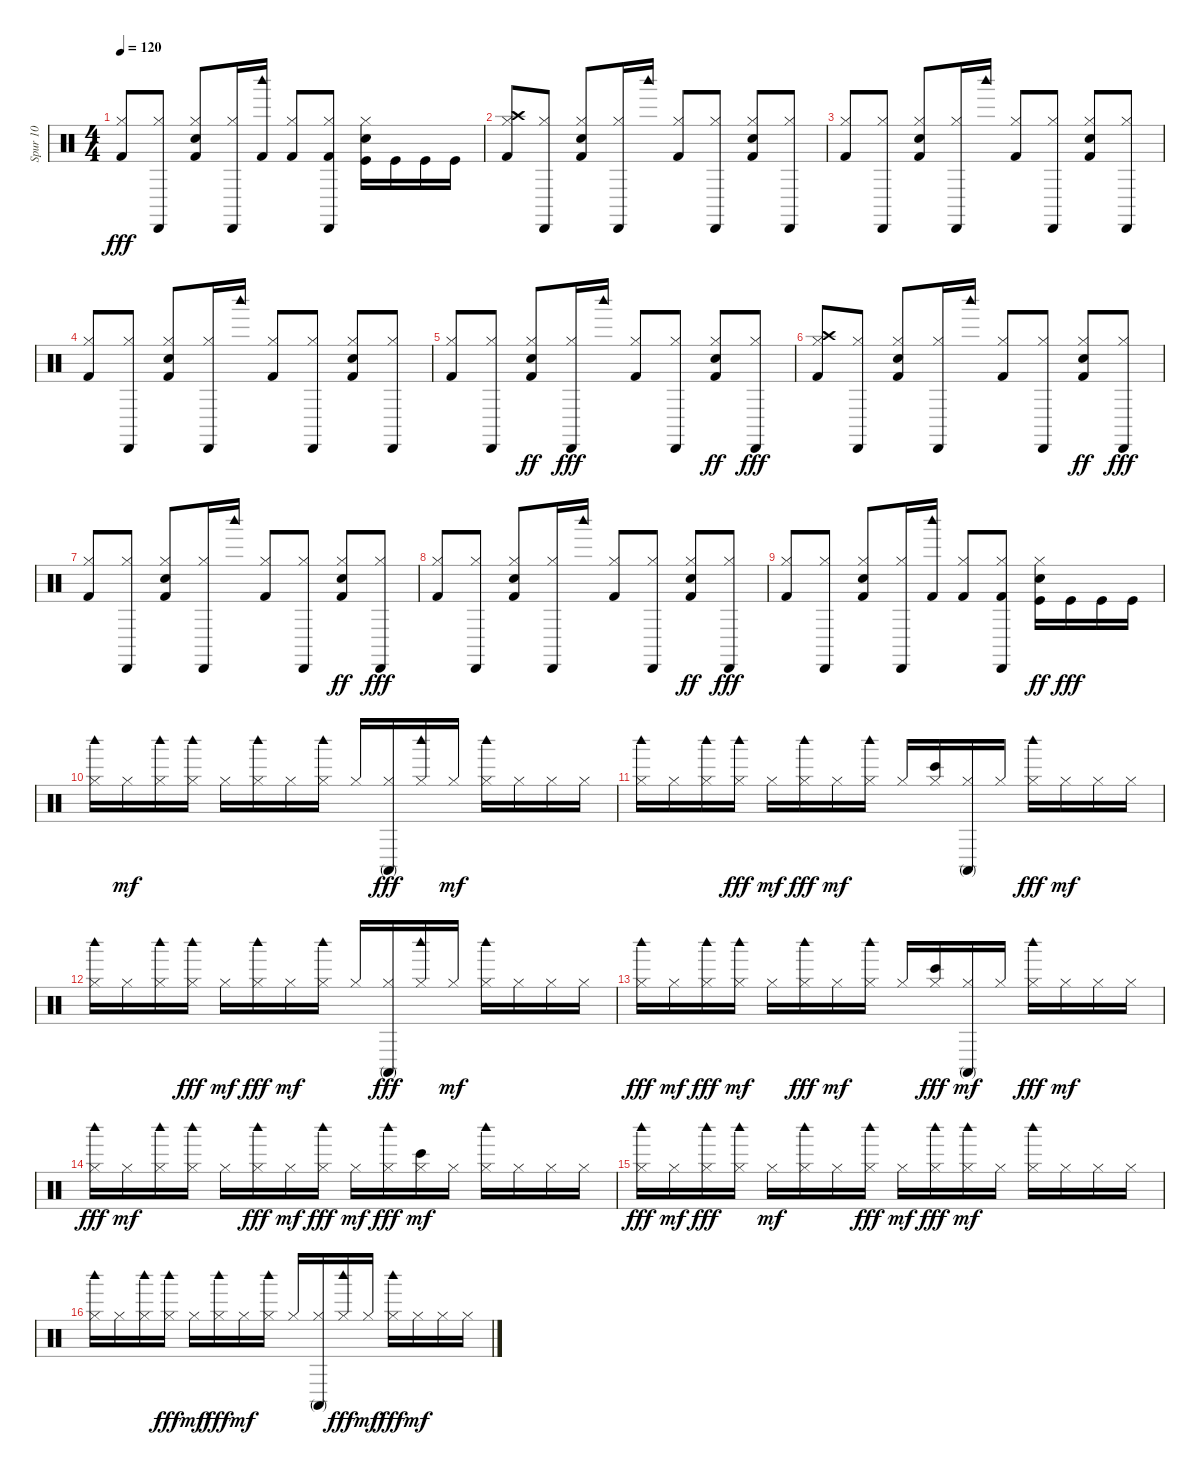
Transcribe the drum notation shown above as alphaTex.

\track ("Spur 10" "Spur 10") {instrument percussion}
\staff {score}
\articulation defaults
\ts (4 4)
\tempo 120
\clef neutral
\ks c
("Kick (hit) 2" "Hi-Hat (closed)").8{dy fff} ("Cabasa (hit)" "Hi-Hat (closed)").8 ("Hand Clap (hit)" "Hi-Hat (closed)" "Kick (hit) 2").8 ("Hi-Hat (closed)" "Cabasa (hit)").16 ("Kick (hit) 2" "Woodblock high (hit)").16 ("Hi-Hat (closed)" "Kick (hit) 2").8 ("Kick (hit) 2" "Hi-Hat (closed)" "Cabasa (hit)").8 ("Hand Clap (hit)" "Hi-Hat (closed)" "Kick (hit)").16 "Kick (hit)".16 "Kick (hit)".16 "Kick (hit)".16 |
("Crash high (hit)" "Kick (hit) 2" "Hi-Hat (closed)").8 ("Hi-Hat (closed)" "Cabasa (hit)").8 ("Hand Clap (hit)" "Kick (hit) 2" "Hi-Hat (closed)").8 ("Cabasa (hit)" "Hi-Hat (closed)").16 "Woodblock high (hit)".16 ("Hi-Hat (closed)" "Kick (hit) 2").8 ("Cabasa (hit)" "Hi-Hat (closed)").8 ("Hand Clap (hit)" "Kick (hit) 2" "Hi-Hat (closed)").8 ("Cabasa (hit)" "Hi-Hat (closed)").8 |
("Hi-Hat (closed)" "Kick (hit) 2").8 ("Hi-Hat (closed)" "Cabasa (hit)").8 ("Hand Clap (hit)" "Hi-Hat (closed)" "Kick (hit) 2").8 ("Hi-Hat (closed)" "Cabasa (hit)").16 "Woodblock high (hit)".16 ("Hi-Hat (closed)" "Kick (hit) 2").8 ("Cabasa (hit)" "Hi-Hat (closed)").8 ("Hand Clap (hit)" "Kick (hit) 2" "Hi-Hat (closed)").8 ("Cabasa (hit)" "Hi-Hat (closed)").8 |
("Kick (hit) 2" "Hi-Hat (closed)").8 ("Cabasa (hit)" "Hi-Hat (closed)").8 ("Kick (hit) 2" "Hand Clap (hit)" "Hi-Hat (closed)").8 ("Hi-Hat (closed)" "Cabasa (hit)").16 "Woodblock high (hit)".16 ("Kick (hit) 2" "Hi-Hat (closed)").8 ("Cabasa (hit)" "Hi-Hat (closed)").8 ("Hi-Hat (closed)" "Hand Clap (hit)" "Kick (hit) 2").8 ("Cabasa (hit)" "Hi-Hat (closed)").8 |
("Kick (hit) 2" "Hi-Hat (closed)").8 ("Hi-Hat (closed)" "Cabasa (hit)").8 ("Hi-Hat (closed)" "Kick (hit) 2" "Hand Clap (hit)").8{dy ff} ("Hi-Hat (closed)" "Cabasa (hit)").16{dy fff} "Woodblock high (hit)".16 ("Kick (hit) 2" "Hi-Hat (closed)").8 ("Hi-Hat (closed)" "Cabasa (hit)").8 ("Kick (hit) 2" "Hi-Hat (closed)" "Hand Clap (hit)").8{dy ff} ("Cabasa (hit)" "Hi-Hat (closed)").8{dy fff} |
("Kick (hit) 2" "Crash high (hit)" "Hi-Hat (closed)").8 ("Hi-Hat (closed)" "Cabasa (hit)").8 ("Hand Clap (hit)" "Kick (hit) 2" "Hi-Hat (closed)").8 ("Cabasa (hit)" "Hi-Hat (closed)").16 "Woodblock high (hit)".16 ("Kick (hit) 2" "Hi-Hat (closed)").8 ("Hi-Hat (closed)" "Cabasa (hit)").8 ("Kick (hit) 2" "Hi-Hat (closed)" "Hand Clap (hit)").8{dy ff} ("Hi-Hat (closed)" "Cabasa (hit)").8{dy fff} |
("Hi-Hat (closed)" "Kick (hit) 2").8 ("Hi-Hat (closed)" "Cabasa (hit)").8 ("Kick (hit) 2" "Hand Clap (hit)" "Hi-Hat (closed)").8 ("Hi-Hat (closed)" "Cabasa (hit)").16 "Woodblock high (hit)".16 ("Kick (hit) 2" "Hi-Hat (closed)").8 ("Cabasa (hit)" "Hi-Hat (closed)").8 ("Kick (hit) 2" "Hi-Hat (closed)" "Hand Clap (hit)").8{dy ff} ("Hi-Hat (closed)" "Cabasa (hit)").8{dy fff} |
("Hi-Hat (closed)" "Kick (hit) 2").8 ("Cabasa (hit)" "Hi-Hat (closed)").8 ("Hand Clap (hit)" "Kick (hit) 2" "Hi-Hat (closed)").8 ("Cabasa (hit)" "Hi-Hat (closed)").16 "Woodblock high (hit)".16 ("Kick (hit) 2" "Hi-Hat (closed)").8 ("Cabasa (hit)" "Hi-Hat (closed)").8 ("Kick (hit) 2" "Hi-Hat (closed)" "Hand Clap (hit)").8{dy ff} ("Hi-Hat (closed)" "Cabasa (hit)").8{dy fff} |
("Hi-Hat (closed)" "Kick (hit) 2").8 ("Cabasa (hit)" "Hi-Hat (closed)").8 ("Hand Clap (hit)" "Kick (hit) 2" "Hi-Hat (closed)").8 ("Cabasa (hit)" "Hi-Hat (closed)").16 ("Woodblock high (hit)" "Kick (hit) 2").16 ("Kick (hit) 2" "Hi-Hat (closed)").8 ("Cabasa (hit)" "Kick (hit) 2" "Hi-Hat (closed)").8 ("Kick (hit)" "Hi-Hat (closed)" "Hand Clap (hit)").16{dy ff} "Kick (hit)".16{dy fff} "Kick (hit)".16 "Kick (hit)".16 |
("Hi-Hat (closed)" "Woodblock high (hit)").16 "Hi-Hat (closed)".16{dy mf} ("Woodblock high (hit)" "Hi-Hat (closed)").16 ("Woodblock high (hit)" "Hi-Hat (closed)").16 "Hi-Hat (closed)".16 ("Woodblock high (hit)" "Hi-Hat (closed)").16 "Hi-Hat (closed)".16 ("Woodblock high (hit)" "Hi-Hat (closed)").16 "Hi-Hat (closed)".16 ("Hi-Hat (closed)" "Conga high (mute)").16{dy fff} ("Hi-Hat (closed)" "Woodblock high (hit)").16 "Hi-Hat (closed)".16{dy mf} ("Woodblock high (hit)" "Hi-Hat (closed)").16 "Hi-Hat (closed)".16 "Hi-Hat (closed)".16 "Hi-Hat (closed)".16 |
("Woodblock high (hit)" "Hi-Hat (closed)").16 "Hi-Hat (closed)".16 ("Woodblock high (hit)" "Hi-Hat (closed)").16 ("Hi-Hat (closed)" "Woodblock high (hit)").16{dy fff} "Hi-Hat (closed)".16{dy mf} ("Hi-Hat (closed)" "Woodblock high (hit)").16{dy fff} "Hi-Hat (closed)".16{dy mf} ("Woodblock high (hit)" "Hi-Hat (closed)").16 "Hi-Hat (closed)".16 ("Bongo High (hit)" "Hi-Hat (closed)").16 ("Conga high (mute)" "Hi-Hat (closed)").16 "Hi-Hat (closed)".16 ("Hi-Hat (closed)" "Woodblock high (hit)").16{dy fff} "Hi-Hat (closed)".16{dy mf} "Hi-Hat (closed)".16 "Hi-Hat (closed)".16 |
("Woodblock high (hit)" "Hi-Hat (closed)").16 "Hi-Hat (closed)".16 ("Woodblock high (hit)" "Hi-Hat (closed)").16 ("Hi-Hat (closed)" "Woodblock high (hit)").16{dy fff} "Hi-Hat (closed)".16{dy mf} ("Hi-Hat (closed)" "Woodblock high (hit)").16{dy fff} "Hi-Hat (closed)".16{dy mf} ("Woodblock high (hit)" "Hi-Hat (closed)").16 "Hi-Hat (closed)".16 ("Hi-Hat (closed)" "Conga high (mute)").16{dy fff} ("Hi-Hat (closed)" "Woodblock high (hit)").16 "Hi-Hat (closed)".16{dy mf} ("Woodblock high (hit)" "Hi-Hat (closed)").16 "Hi-Hat (closed)".16 "Hi-Hat (closed)".16 "Hi-Hat (closed)".16 |
("Hi-Hat (closed)" "Woodblock high (hit)").16{dy fff} "Hi-Hat (closed)".16{dy mf} ("Hi-Hat (closed)" "Woodblock high (hit)").16{dy fff} ("Woodblock high (hit)" "Hi-Hat (closed)").16{dy mf} "Hi-Hat (closed)".16 ("Hi-Hat (closed)" "Woodblock high (hit)").16{dy fff} "Hi-Hat (closed)".16{dy mf} ("Woodblock high (hit)" "Hi-Hat (closed)").16 "Hi-Hat (closed)".16 ("Hi-Hat (closed)" "Bongo High (hit)").16{dy fff} ("Conga high (mute)" "Hi-Hat (closed)").16{dy mf} "Hi-Hat (closed)".16 ("Hi-Hat (closed)" "Woodblock high (hit)").16{dy fff} "Hi-Hat (closed)".16{dy mf} "Hi-Hat (closed)".16 "Hi-Hat (closed)".16 |
("Hi-Hat (closed)" "Woodblock high (hit)").16{dy fff} "Hi-Hat (closed)".16{dy mf} ("Woodblock high (hit)" "Hi-Hat (closed)").16 ("Woodblock high (hit)" "Hi-Hat (closed)").16 "Hi-Hat (closed)".16 ("Hi-Hat (closed)" "Woodblock high (hit)").16{dy fff} "Hi-Hat (closed)".16{dy mf} ("Hi-Hat (closed)" "Woodblock high (hit)").16{dy fff} "Hi-Hat (closed)".16{dy mf} ("Hi-Hat (closed)" "Woodblock high (hit)").16{dy fff} ("Bongo High (hit)" "Hi-Hat (closed)").16{dy mf} "Hi-Hat (closed)".16 ("Woodblock high (hit)" "Hi-Hat (closed)").16 "Hi-Hat (closed)".16 "Hi-Hat (closed)".16 "Hi-Hat (closed)".16 |
("Hi-Hat (closed)" "Woodblock high (hit)").16{dy fff} "Hi-Hat (closed)".16{dy mf} ("Hi-Hat (closed)" "Woodblock high (hit)").16{dy fff} ("Hi-Hat (closed)" "Woodblock high (hit)").16 "Hi-Hat (closed)".16{dy mf} ("Woodblock high (hit)" "Hi-Hat (closed)").16 "Hi-Hat (closed)".16 ("Hi-Hat (closed)" "Woodblock high (hit)").16{dy fff} "Hi-Hat (closed)".16{dy mf} ("Hi-Hat (closed)" "Woodblock high (hit)").16{dy fff} ("Woodblock high (hit)" "Hi-Hat (closed)").16{dy mf} "Hi-Hat (closed)".16 ("Woodblock high (hit)" "Hi-Hat (closed)").16 "Hi-Hat (closed)".16 "Hi-Hat (closed)".16 "Hi-Hat (closed)".16 |
("Woodblock high (hit)" "Hi-Hat (closed)").16 "Hi-Hat (closed)".16 ("Woodblock high (hit)" "Hi-Hat (closed)").16 ("Hi-Hat (closed)" "Woodblock high (hit)").16{dy fff} "Hi-Hat (closed)".16{dy mf} ("Hi-Hat (closed)" "Woodblock high (hit)").16{dy fff} "Hi-Hat (closed)".16{dy mf} ("Woodblock high (hit)" "Hi-Hat (closed)").16 "Hi-Hat (closed)".16 ("Conga high (mute)" "Hi-Hat (closed)").16 ("Hi-Hat (closed)" "Woodblock high (hit)").16{dy fff} "Hi-Hat (closed)".16{dy mf} ("Hi-Hat (closed)" "Woodblock high (hit)").16{dy fff} "Hi-Hat (closed)".16{dy mf} "Hi-Hat (closed)".16 "Hi-Hat (closed)".16
